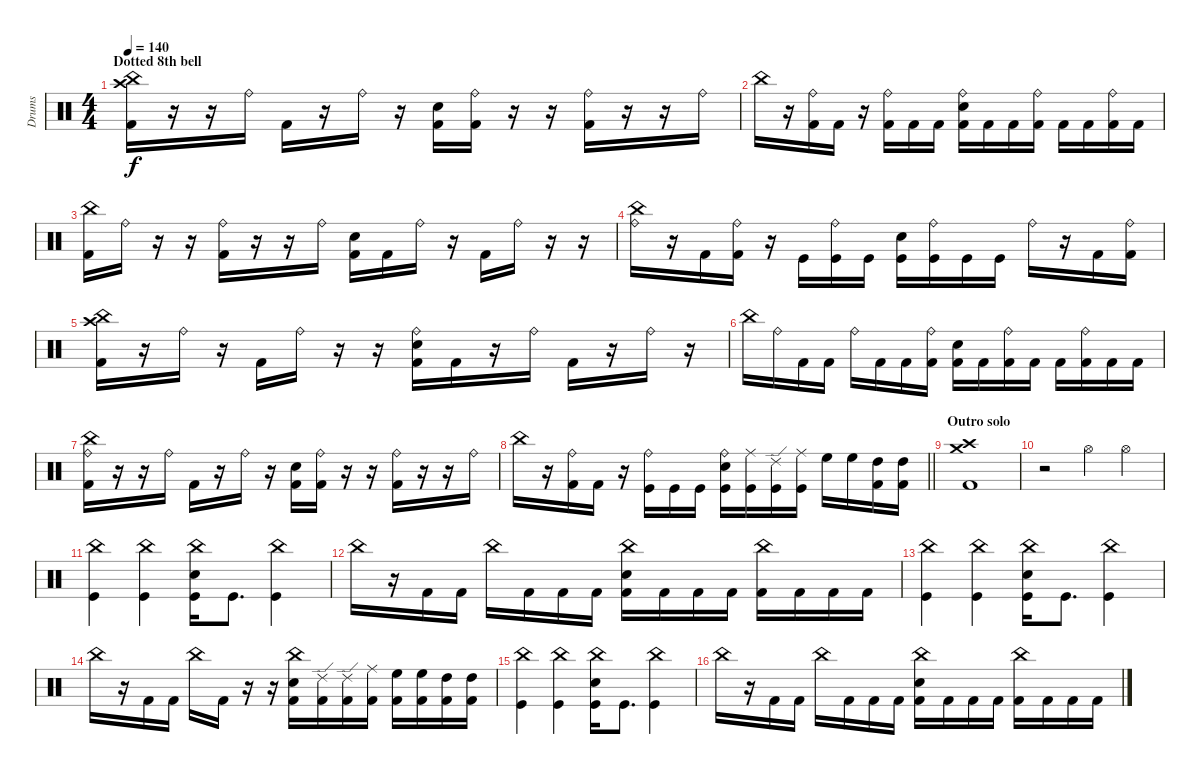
\track ("Drums" "Drums") {mute instrument percussion}
\staff {score}
\articulation defaults
\ts (4 4)
\section ("" "Dotted 8th bell")
\tempo 140
\clef neutral
\ks c
("Crash high (hit)" "China (hit)" "Kick (hit) 2").16{dy f} r.16 r.16 "Ride (bell)".16 "Kick (hit) 2".16 r.16 "Ride (bell)".16 r.16 ("Electric Snare (hit)" "Kick (hit) 2").16 ("Ride (bell)" "Kick (hit) 2").16 r.16 r.16 ("Ride (bell)" "Kick (hit) 2").16 r.16 r.16 "Ride (bell)".16 |
"China (hit)".16 r.16 ("Ride (bell)" "Kick (hit) 2").16 "Kick (hit) 2".16 r.16 ("Ride (bell)" "Kick (hit) 2").16 "Kick (hit) 2".16 "Kick (hit) 2".16 ("Ride (bell)" "Electric Snare (hit)" "Kick (hit) 2").16 "Kick (hit) 2".16 "Kick (hit) 2".16 ("Ride (bell)" "Kick (hit) 2").16 "Kick (hit) 2".16 "Kick (hit) 2".16 ("Ride (bell)" "Kick (hit) 2").16 "Kick (hit) 2".16 |
("China (hit)" "Kick (hit) 2").16 "Ride (bell)".16 r.16 r.16 ("Ride (bell)" "Kick (hit) 2").16 r.16 r.16 "Ride (bell)".16 ("Electric Snare (hit)" "Kick (hit) 2").16 "Kick (hit) 2".16 "Ride (bell)".16 r.16 "Kick (hit) 2".16 "Ride (bell)".16 r.16 r.16 |
("Ride (bell)" "China (hit)").16 r.16 "Kick (hit) 2".16 ("Ride (bell)" "Kick (hit) 2").16 r.16 "Kick (hit)".16 ("Ride (bell)" "Kick (hit)").16 "Kick (hit)".16 ("Electric Snare (hit)" "Kick (hit)").16 ("Ride (bell)" "Kick (hit)").16 "Kick (hit)".16 "Kick (hit)".16 "Ride (bell)".16 r.16 "Kick (hit) 2".16 ("Ride (bell)" "Kick (hit) 2").16 |
("Crash high (hit)" "China (hit)" "Kick (hit) 2").16 r.16 "Ride (bell)".16 r.16 "Kick (hit) 2".16 "Ride (bell)".16 r.16 r.16 ("Ride (bell)" "Electric Snare (hit)" "Kick (hit) 2").16 "Kick (hit) 2".16 r.16 "Ride (bell)".16 "Kick (hit) 2".16 r.16 "Ride (bell)".16 r.16 |
"China (hit)".16 "Ride (bell)".16 "Kick (hit) 2".16 "Kick (hit) 2".16 "Ride (bell)".16 "Kick (hit) 2".16 "Kick (hit) 2".16 ("Ride (bell)" "Kick (hit) 2").16 ("Electric Snare (hit)" "Kick (hit) 2").16 "Kick (hit) 2".16 ("Ride (bell)" "Kick (hit) 2").16 "Kick (hit) 2".16 "Kick (hit) 2".16 ("Ride (bell)" "Kick (hit) 2").16 "Kick (hit) 2".16 "Kick (hit) 2".16 |
("China (hit)" "Ride (bell)" "Kick (hit) 2").16 r.16 r.16 "Ride (bell)".16 "Kick (hit) 2".16 r.16 "Ride (bell)".16 r.16 ("Electric Snare (hit)" "Kick (hit) 2").16 ("Ride (bell)" "Kick (hit) 2").16 r.16 r.16 ("Ride (bell)" "Kick (hit) 2").16 r.16 r.16 "Ride (bell)".16 |
\barLineRight lightlight "China (hit)".16
r.16 ("Ride (bell)" "Kick (hit) 2").16 "Kick (hit) 2".16 r.16 ("Ride (bell)" "Kick (hit)").16 "Kick (hit)".16 "Kick (hit)".16 ("Ride (bell)" "Electric Snare (hit)" "Kick (hit)").16 ("Ride (middle)" "Kick (hit)").16 ("Ride (edge) 2" "Kick (hit)").16 ("Ride (middle)" "Kick (hit)").16 "High Floor Tom (hit)".16 "High Floor Tom (hit)".16 ("High Tom (hit)" "Kick (hit) 2").16 ("High Tom (hit)" "Kick (hit) 2").16 |
\section ("" "Outro solo")
("Crash medium (hit)" "Crash high (hit)" "Kick (hit) 2").1 |
r.2 "Hi-Hat (open)".4 "Hi-Hat (open)".4 |
("China (hit)" "Kick (hit)").4 ("China (hit)" "Kick (hit)").4 ("China (hit)" "Electric Snare (hit)" "Kick (hit)").16 "Kick (hit)".8{d} ("China (hit)" "Kick (hit)").4 |
"China (hit)".16 r.16 "Kick (hit) 2".16 "Kick (hit) 2".16 "China (hit)".16 "Kick (hit) 2".16 "Kick (hit) 2".16 "Kick (hit) 2".16 ("China (hit)" "Electric Snare (hit)" "Kick (hit) 2").16 "Kick (hit) 2".16 "Kick (hit) 2".16 "Kick (hit) 2".16 ("China (hit)" "Kick (hit) 2").16 "Kick (hit) 2".16 "Kick (hit) 2".16 "Kick (hit) 2".16 |
("China (hit)" "Kick (hit)").4 ("China (hit)" "Kick (hit)").4 ("China (hit)" "Electric Snare (hit)" "Kick (hit)").16 "Kick (hit)".8{d} ("China (hit)" "Kick (hit)").4 |
"China (hit)".16 r.16 "Kick (hit) 2".16 "Kick (hit) 2".16 "China (hit)".16 "Kick (hit) 2".16 r.16 r.16 ("China (hit)" "Electric Snare (hit)" "Kick (hit) 2").16 ("Ride (edge) 2" "Kick (hit) 2").16 ("Ride (edge) 2" "Kick (hit) 2").16 ("Ride (middle)" "Kick (hit) 2").16 ("High Floor Tom (hit)" "Kick (hit) 2").16 ("High Floor Tom (hit)" "Kick (hit) 2").16 ("High Tom (hit)" "Kick (hit) 2").16 ("High Tom (hit)" "Kick (hit) 2").16 |
("China (hit)" "Kick (hit)").4 ("China (hit)" "Kick (hit)").4 ("China (hit)" "Electric Snare (hit)" "Kick (hit)").16 "Kick (hit)".8{d} ("China (hit)" "Kick (hit)").4 |
"China (hit)".16 r.16 "Kick (hit) 2".16 "Kick (hit) 2".16 "China (hit)".16 "Kick (hit) 2".16 "Kick (hit) 2".16 "Kick (hit) 2".16 ("China (hit)" "Electric Snare (hit)" "Kick (hit) 2").16 "Kick (hit) 2".16 "Kick (hit) 2".16 "Kick (hit) 2".16 ("China (hit)" "Kick (hit) 2").16 "Kick (hit) 2".16 "Kick (hit) 2".16 "Kick (hit) 2".16
